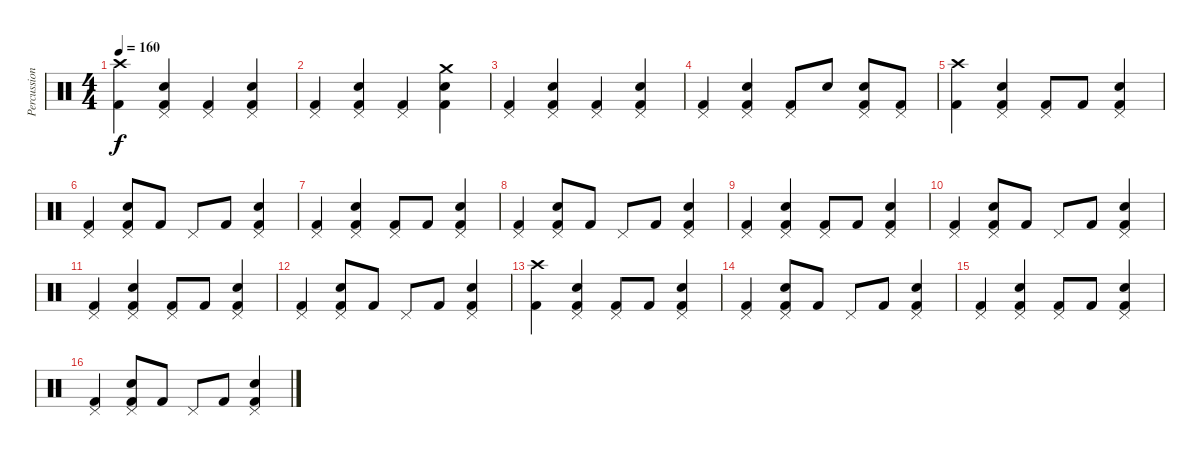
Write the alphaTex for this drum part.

\track ("Percussion" "Percussion") {instrument percussion}
\staff {score}
\articulation defaults
\ts (4 4)
\tempo 160
\clef neutral
\ks c
("Crash high (hit)" "Kick (hit) 2").4{dy f} ("Pedal Hi-Hat (hit)" "Snare (hit) 2" "Kick (hit) 2").4 ("Pedal Hi-Hat (hit)" "Kick (hit) 2").4 ("Pedal Hi-Hat (hit)" "Snare (hit) 2" "Kick (hit) 2").4 |
("Pedal Hi-Hat (hit)" "Kick (hit) 2").4 ("Pedal Hi-Hat (hit)" "Snare (hit) 2" "Kick (hit) 2").4 ("Pedal Hi-Hat (hit)" "Kick (hit) 2").4 ("Crash medium (hit)" "Snare (hit) 2" "Kick (hit) 2").4 |
("Pedal Hi-Hat (hit)" "Kick (hit) 2").4 ("Pedal Hi-Hat (hit)" "Snare (hit) 2" "Kick (hit) 2").4 ("Pedal Hi-Hat (hit)" "Kick (hit) 2").4 ("Pedal Hi-Hat (hit)" "Snare (hit) 2" "Kick (hit) 2").4 |
("Pedal Hi-Hat (hit)" "Kick (hit) 2").4 ("Pedal Hi-Hat (hit)" "Snare (hit) 2" "Kick (hit) 2").4 ("Pedal Hi-Hat (hit)" "Kick (hit) 2").8 "Snare (hit) 2".8 ("Pedal Hi-Hat (hit)" "Snare (hit) 2" "Kick (hit) 2").8 ("Pedal Hi-Hat (hit)" "Kick (hit) 2").8 |
("Crash high (hit)" "Kick (hit) 2").4 ("Pedal Hi-Hat (hit)" "Snare (hit) 2" "Kick (hit) 2").4 ("Pedal Hi-Hat (hit)" "Kick (hit) 2").8 "Kick (hit) 2".8 ("Pedal Hi-Hat (hit)" "Snare (hit) 2" "Kick (hit) 2").4 |
("Pedal Hi-Hat (hit)" "Kick (hit) 2").4 ("Pedal Hi-Hat (hit)" "Snare (hit) 2" "Kick (hit) 2").8 "Kick (hit) 2".8 "Pedal Hi-Hat (hit)".8 "Kick (hit) 2".8 ("Pedal Hi-Hat (hit)" "Snare (hit) 2" "Kick (hit) 2").4 |
("Pedal Hi-Hat (hit)" "Kick (hit) 2").4 ("Pedal Hi-Hat (hit)" "Snare (hit) 2" "Kick (hit) 2").4 ("Pedal Hi-Hat (hit)" "Kick (hit) 2").8 "Kick (hit) 2".8 ("Pedal Hi-Hat (hit)" "Snare (hit) 2" "Kick (hit) 2").4 |
("Pedal Hi-Hat (hit)" "Kick (hit) 2").4 ("Pedal Hi-Hat (hit)" "Snare (hit) 2" "Kick (hit) 2").8 "Kick (hit) 2".8 "Pedal Hi-Hat (hit)".8 "Kick (hit) 2".8 ("Pedal Hi-Hat (hit)" "Snare (hit) 2" "Kick (hit) 2").4 |
("Pedal Hi-Hat (hit)" "Kick (hit) 2").4 ("Pedal Hi-Hat (hit)" "Snare (hit) 2" "Kick (hit) 2").4 ("Pedal Hi-Hat (hit)" "Kick (hit) 2").8 "Kick (hit) 2".8 ("Pedal Hi-Hat (hit)" "Snare (hit) 2" "Kick (hit) 2").4 |
("Pedal Hi-Hat (hit)" "Kick (hit) 2").4 ("Pedal Hi-Hat (hit)" "Snare (hit) 2" "Kick (hit) 2").8 "Kick (hit) 2".8 "Pedal Hi-Hat (hit)".8 "Kick (hit) 2".8 ("Pedal Hi-Hat (hit)" "Snare (hit) 2" "Kick (hit) 2").4 |
("Pedal Hi-Hat (hit)" "Kick (hit) 2").4 ("Pedal Hi-Hat (hit)" "Snare (hit) 2" "Kick (hit) 2").4 ("Pedal Hi-Hat (hit)" "Kick (hit) 2").8 "Kick (hit) 2".8 ("Pedal Hi-Hat (hit)" "Snare (hit) 2" "Kick (hit) 2").4 |
("Pedal Hi-Hat (hit)" "Kick (hit) 2").4 ("Pedal Hi-Hat (hit)" "Snare (hit) 2" "Kick (hit) 2").8 "Kick (hit) 2".8 "Pedal Hi-Hat (hit)".8 "Kick (hit) 2".8 ("Pedal Hi-Hat (hit)" "Snare (hit) 2" "Kick (hit) 2").4 |
("Crash high (hit)" "Kick (hit) 2").4 ("Pedal Hi-Hat (hit)" "Snare (hit) 2" "Kick (hit) 2").4 ("Pedal Hi-Hat (hit)" "Kick (hit) 2").8 "Kick (hit) 2".8 ("Pedal Hi-Hat (hit)" "Snare (hit) 2" "Kick (hit) 2").4 |
("Pedal Hi-Hat (hit)" "Kick (hit) 2").4 ("Pedal Hi-Hat (hit)" "Snare (hit) 2" "Kick (hit) 2").8 "Kick (hit) 2".8 "Pedal Hi-Hat (hit)".8 "Kick (hit) 2".8 ("Pedal Hi-Hat (hit)" "Snare (hit) 2" "Kick (hit) 2").4 |
("Pedal Hi-Hat (hit)" "Kick (hit) 2").4 ("Pedal Hi-Hat (hit)" "Snare (hit) 2" "Kick (hit) 2").4 ("Pedal Hi-Hat (hit)" "Kick (hit) 2").8 "Kick (hit) 2".8 ("Pedal Hi-Hat (hit)" "Snare (hit) 2" "Kick (hit) 2").4 |
("Pedal Hi-Hat (hit)" "Kick (hit) 2").4 ("Pedal Hi-Hat (hit)" "Snare (hit) 2" "Kick (hit) 2").8 "Kick (hit) 2".8 "Pedal Hi-Hat (hit)".8 "Kick (hit) 2".8 ("Pedal Hi-Hat (hit)" "Snare (hit) 2" "Kick (hit) 2").4
